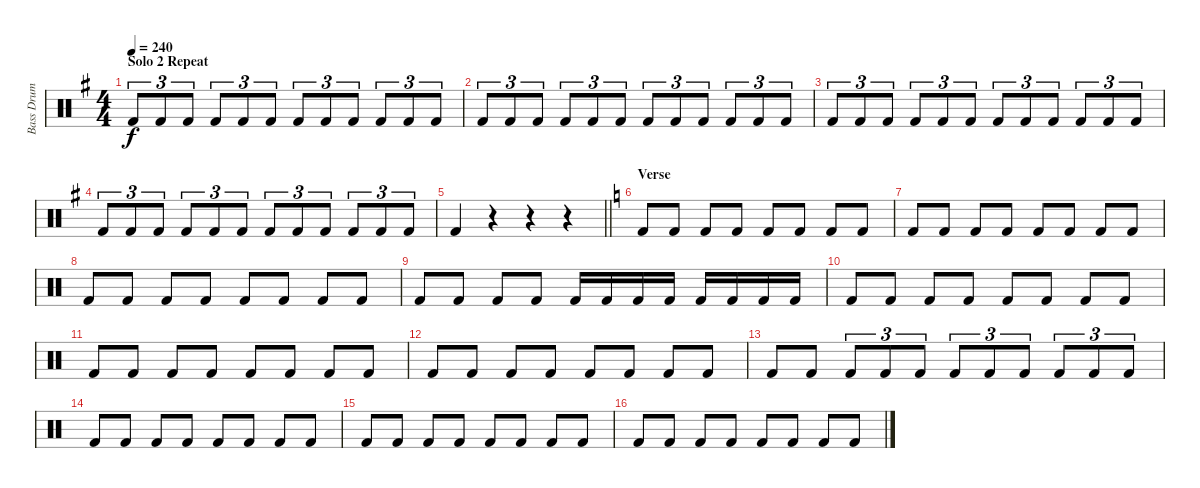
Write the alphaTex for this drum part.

\track ("Bass Drum" "Bass Drum") {instrument percussion}
\staff {score}
\articulation defaults
\ts (4 4)
\section ("" "Solo 2 Repeat")
\tempo 240
\clef neutral
\ks g "Kick (hit) 2".8{tu (3 2) dy f} "Kick (hit) 2".8{tu (3 2)} "Kick (hit) 2".8{tu (3 2)} "Kick (hit) 2".8{tu (3 2)} "Kick (hit) 2".8{tu (3 2)} "Kick (hit) 2".8{tu (3 2)} "Kick (hit) 2".8{tu (3 2)} "Kick (hit) 2".8{tu (3 2)} "Kick (hit) 2".8{tu (3 2)} "Kick (hit) 2".8{tu (3 2)} "Kick (hit) 2".8{tu (3 2)} "Kick (hit) 2".8{tu (3 2)}
|
"Kick (hit) 2".8{tu (3 2)} "Kick (hit) 2".8{tu (3 2)} "Kick (hit) 2".8{tu (3 2)} "Kick (hit) 2".8{tu (3 2)} "Kick (hit) 2".8{tu (3 2)} "Kick (hit) 2".8{tu (3 2)} "Kick (hit) 2".8{tu (3 2)} "Kick (hit) 2".8{tu (3 2)} "Kick (hit) 2".8{tu (3 2)} "Kick (hit) 2".8{tu (3 2)} "Kick (hit) 2".8{tu (3 2)} "Kick (hit) 2".8{tu (3 2)} |
"Kick (hit) 2".8{tu (3 2)} "Kick (hit) 2".8{tu (3 2)} "Kick (hit) 2".8{tu (3 2)} "Kick (hit) 2".8{tu (3 2)} "Kick (hit) 2".8{tu (3 2)} "Kick (hit) 2".8{tu (3 2)} "Kick (hit) 2".8{tu (3 2)} "Kick (hit) 2".8{tu (3 2)} "Kick (hit) 2".8{tu (3 2)} "Kick (hit) 2".8{tu (3 2)} "Kick (hit) 2".8{tu (3 2)} "Kick (hit) 2".8{tu (3 2)} |
"Kick (hit) 2".8{tu (3 2)} "Kick (hit) 2".8{tu (3 2)} "Kick (hit) 2".8{tu (3 2)} "Kick (hit) 2".8{tu (3 2)} "Kick (hit) 2".8{tu (3 2)} "Kick (hit) 2".8{tu (3 2)} "Kick (hit) 2".8{tu (3 2)} "Kick (hit) 2".8{tu (3 2)} "Kick (hit) 2".8{tu (3 2)} "Kick (hit) 2".8{tu (3 2)} "Kick (hit) 2".8{tu (3 2)} "Kick (hit) 2".8{tu (3 2)} |
\barLineRight lightlight "Kick (hit) 2".4
r.4 r.4 r.4 |
\section ("" "Verse")
\ks c "Kick (hit) 2".8 "Kick (hit) 2".8 "Kick (hit) 2".8 "Kick (hit) 2".8 "Kick (hit) 2".8 "Kick (hit) 2".8 "Kick (hit) 2".8 "Kick (hit) 2".8
|
"Kick (hit) 2".8 "Kick (hit) 2".8 "Kick (hit) 2".8 "Kick (hit) 2".8 "Kick (hit) 2".8 "Kick (hit) 2".8 "Kick (hit) 2".8 "Kick (hit) 2".8 |
"Kick (hit) 2".8 "Kick (hit) 2".8 "Kick (hit) 2".8 "Kick (hit) 2".8 "Kick (hit) 2".8 "Kick (hit) 2".8 "Kick (hit) 2".8 "Kick (hit) 2".8 |
"Kick (hit) 2".8 "Kick (hit) 2".8 "Kick (hit) 2".8 "Kick (hit) 2".8 "Kick (hit) 2".16 "Kick (hit) 2".16 "Kick (hit) 2".16 "Kick (hit) 2".16 "Kick (hit) 2".16 "Kick (hit) 2".16 "Kick (hit) 2".16 "Kick (hit) 2".16 |
"Kick (hit) 2".8 "Kick (hit) 2".8 "Kick (hit) 2".8 "Kick (hit) 2".8 "Kick (hit) 2".8 "Kick (hit) 2".8 "Kick (hit) 2".8 "Kick (hit) 2".8 |
"Kick (hit) 2".8 "Kick (hit) 2".8 "Kick (hit) 2".8 "Kick (hit) 2".8 "Kick (hit) 2".8 "Kick (hit) 2".8 "Kick (hit) 2".8 "Kick (hit) 2".8 |
"Kick (hit) 2".8 "Kick (hit) 2".8 "Kick (hit) 2".8 "Kick (hit) 2".8 "Kick (hit) 2".8 "Kick (hit) 2".8 "Kick (hit) 2".8 "Kick (hit) 2".8 |
"Kick (hit) 2".8 "Kick (hit) 2".8 "Kick (hit) 2".8{tu (3 2)} "Kick (hit) 2".8{tu (3 2)} "Kick (hit) 2".8{tu (3 2)} "Kick (hit) 2".8{tu (3 2)} "Kick (hit) 2".8{tu (3 2)} "Kick (hit) 2".8{tu (3 2)} "Kick (hit) 2".8{tu (3 2)} "Kick (hit) 2".8{tu (3 2)} "Kick (hit) 2".8{tu (3 2)} |
"Kick (hit) 2".8 "Kick (hit) 2".8 "Kick (hit) 2".8 "Kick (hit) 2".8 "Kick (hit) 2".8 "Kick (hit) 2".8 "Kick (hit) 2".8 "Kick (hit) 2".8 |
"Kick (hit) 2".8 "Kick (hit) 2".8 "Kick (hit) 2".8 "Kick (hit) 2".8 "Kick (hit) 2".8 "Kick (hit) 2".8 "Kick (hit) 2".8 "Kick (hit) 2".8 |
"Kick (hit) 2".8 "Kick (hit) 2".8 "Kick (hit) 2".8 "Kick (hit) 2".8 "Kick (hit) 2".8 "Kick (hit) 2".8 "Kick (hit) 2".8 "Kick (hit) 2".8
